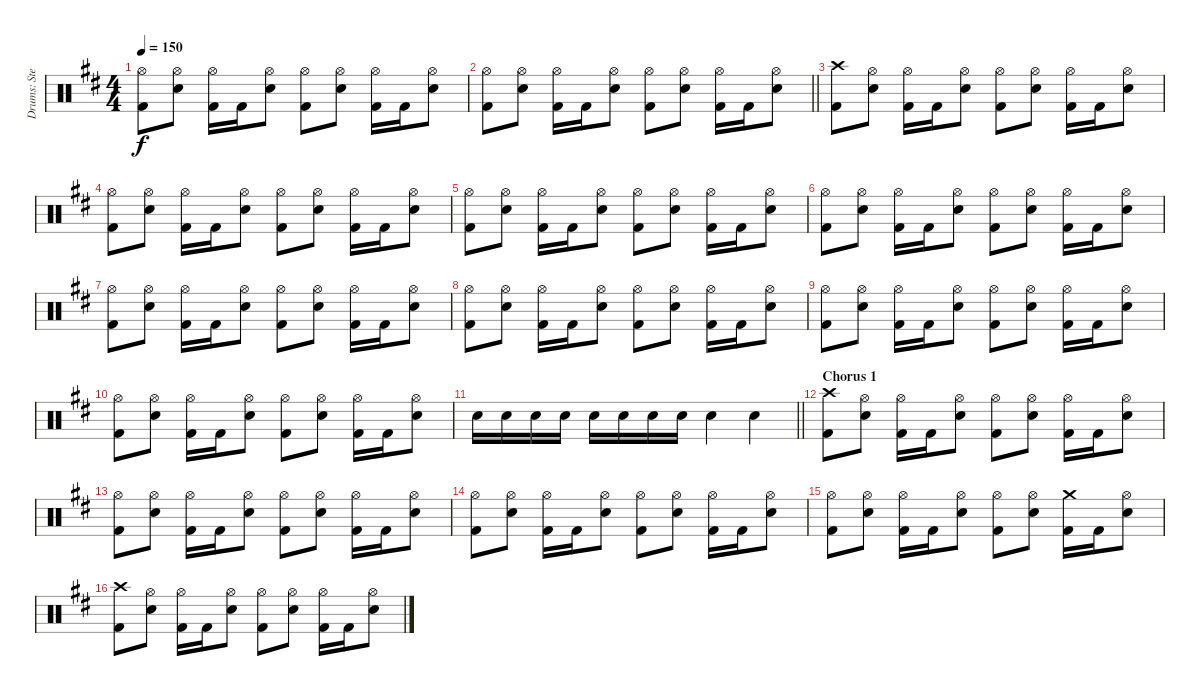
\track ("Drums: Stefan Svantesson" "Drums: Ste") {instrument percussion}
\staff {score}
\articulation defaults
\ts (4 4)
\tempo 150
\clef neutral
\ks d
("Hi-Hat (open)" "Kick (hit) 2").8{dy f} ("Hi-Hat (open)" "Electric Snare (hit)").8 ("Hi-Hat (open)" "Kick (hit) 2").16 "Kick (hit) 2".16 ("Hi-Hat (open)" "Electric Snare (hit)").8 ("Hi-Hat (open)" "Kick (hit) 2").8 ("Hi-Hat (open)" "Electric Snare (hit)").8 ("Hi-Hat (open)" "Kick (hit) 2").16 "Kick (hit) 2".16 ("Hi-Hat (open)" "Electric Snare (hit)").8 |
\barLineRight lightlight
("Hi-Hat (open)" "Kick (hit) 2").8 ("Hi-Hat (open)" "Electric Snare (hit)").8 ("Hi-Hat (open)" "Kick (hit) 2").16 "Kick (hit) 2".16 ("Hi-Hat (open)" "Electric Snare (hit)").8 ("Hi-Hat (open)" "Kick (hit) 2").8 ("Hi-Hat (open)" "Electric Snare (hit)").8 ("Hi-Hat (open)" "Kick (hit) 2").16 "Kick (hit) 2".16 ("Hi-Hat (open)" "Electric Snare (hit)").8 |
("Crash high (hit)" "Kick (hit) 2").8 ("Hi-Hat (open)" "Electric Snare (hit)").8 ("Hi-Hat (open)" "Kick (hit) 2").16 "Kick (hit) 2".16 ("Hi-Hat (open)" "Electric Snare (hit)").8 ("Hi-Hat (open)" "Kick (hit) 2").8 ("Hi-Hat (open)" "Electric Snare (hit)").8 ("Hi-Hat (open)" "Kick (hit) 2").16 "Kick (hit) 2".16 ("Hi-Hat (open)" "Electric Snare (hit)").8 |
("Hi-Hat (open)" "Kick (hit) 2").8 ("Hi-Hat (open)" "Electric Snare (hit)").8 ("Hi-Hat (open)" "Kick (hit) 2").16 "Kick (hit) 2".16 ("Hi-Hat (open)" "Electric Snare (hit)").8 ("Hi-Hat (open)" "Kick (hit) 2").8 ("Hi-Hat (open)" "Electric Snare (hit)").8 ("Hi-Hat (open)" "Kick (hit) 2").16 "Kick (hit) 2".16 ("Hi-Hat (open)" "Electric Snare (hit)").8 |
("Hi-Hat (open)" "Kick (hit) 2").8 ("Hi-Hat (open)" "Electric Snare (hit)").8 ("Hi-Hat (open)" "Kick (hit) 2").16 "Kick (hit) 2".16 ("Hi-Hat (open)" "Electric Snare (hit)").8 ("Hi-Hat (open)" "Kick (hit) 2").8 ("Hi-Hat (open)" "Electric Snare (hit)").8 ("Hi-Hat (open)" "Kick (hit) 2").16 "Kick (hit) 2".16 ("Hi-Hat (open)" "Electric Snare (hit)").8 |
("Hi-Hat (open)" "Kick (hit) 2").8 ("Hi-Hat (open)" "Electric Snare (hit)").8 ("Hi-Hat (open)" "Kick (hit) 2").16 "Kick (hit) 2".16 ("Hi-Hat (open)" "Electric Snare (hit)").8 ("Hi-Hat (open)" "Kick (hit) 2").8 ("Hi-Hat (open)" "Electric Snare (hit)").8 ("Hi-Hat (open)" "Kick (hit) 2").16 "Kick (hit) 2".16 ("Hi-Hat (open)" "Electric Snare (hit)").8 |
("Hi-Hat (open)" "Kick (hit) 2").8 ("Hi-Hat (open)" "Electric Snare (hit)").8 ("Hi-Hat (open)" "Kick (hit) 2").16 "Kick (hit) 2".16 ("Hi-Hat (open)" "Electric Snare (hit)").8 ("Hi-Hat (open)" "Kick (hit) 2").8 ("Hi-Hat (open)" "Electric Snare (hit)").8 ("Hi-Hat (open)" "Kick (hit) 2").16 "Kick (hit) 2".16 ("Hi-Hat (open)" "Electric Snare (hit)").8 |
("Hi-Hat (open)" "Kick (hit) 2").8 ("Hi-Hat (open)" "Electric Snare (hit)").8 ("Hi-Hat (open)" "Kick (hit) 2").16 "Kick (hit) 2".16 ("Hi-Hat (open)" "Electric Snare (hit)").8 ("Hi-Hat (open)" "Kick (hit) 2").8 ("Hi-Hat (open)" "Electric Snare (hit)").8 ("Hi-Hat (open)" "Kick (hit) 2").16 "Kick (hit) 2".16 ("Hi-Hat (open)" "Electric Snare (hit)").8 |
("Hi-Hat (open)" "Kick (hit) 2").8 ("Hi-Hat (open)" "Electric Snare (hit)").8 ("Hi-Hat (open)" "Kick (hit) 2").16 "Kick (hit) 2".16 ("Hi-Hat (open)" "Electric Snare (hit)").8 ("Hi-Hat (open)" "Kick (hit) 2").8 ("Hi-Hat (open)" "Electric Snare (hit)").8 ("Hi-Hat (open)" "Kick (hit) 2").16 "Kick (hit) 2".16 ("Hi-Hat (open)" "Electric Snare (hit)").8 |
("Hi-Hat (open)" "Kick (hit) 2").8 ("Hi-Hat (open)" "Electric Snare (hit)").8 ("Hi-Hat (open)" "Kick (hit) 2").16 "Kick (hit) 2".16 ("Hi-Hat (open)" "Electric Snare (hit)").8 ("Hi-Hat (open)" "Kick (hit) 2").8 ("Hi-Hat (open)" "Electric Snare (hit)").8 ("Hi-Hat (open)" "Kick (hit) 2").16 "Kick (hit) 2".16 ("Hi-Hat (open)" "Electric Snare (hit)").8 |
\barLineRight lightlight "Electric Snare (hit)".16 "Electric Snare (hit)".16 "Electric Snare (hit)".16 "Electric Snare (hit)".16 "Electric Snare (hit)".16 "Electric Snare (hit)".16 "Electric Snare (hit)".16 "Electric Snare (hit)".16 "Electric Snare (hit)".4 "Electric Snare (hit)".4
|
\section ("" "Chorus 1")
("Crash high (hit)" "Kick (hit) 2").8 ("Hi-Hat (open)" "Electric Snare (hit)").8 ("Hi-Hat (open)" "Kick (hit) 2").16 "Kick (hit) 2".16 ("Hi-Hat (open)" "Electric Snare (hit)").8 ("Hi-Hat (open)" "Kick (hit) 2").8 ("Hi-Hat (open)" "Electric Snare (hit)").8 ("Hi-Hat (open)" "Kick (hit) 2").16 "Kick (hit) 2".16 ("Hi-Hat (open)" "Electric Snare (hit)").8 |
("Hi-Hat (open)" "Kick (hit) 2").8 ("Hi-Hat (open)" "Electric Snare (hit)").8 ("Hi-Hat (open)" "Kick (hit) 2").16 "Kick (hit) 2".16 ("Hi-Hat (open)" "Electric Snare (hit)").8 ("Hi-Hat (open)" "Kick (hit) 2").8 ("Hi-Hat (open)" "Electric Snare (hit)").8 ("Hi-Hat (open)" "Kick (hit) 2").16 "Kick (hit) 2".16 ("Hi-Hat (open)" "Electric Snare (hit)").8 |
("Hi-Hat (open)" "Kick (hit) 2").8 ("Hi-Hat (open)" "Electric Snare (hit)").8 ("Hi-Hat (open)" "Kick (hit) 2").16 "Kick (hit) 2".16 ("Hi-Hat (open)" "Electric Snare (hit)").8 ("Hi-Hat (open)" "Kick (hit) 2").8 ("Hi-Hat (open)" "Electric Snare (hit)").8 ("Hi-Hat (open)" "Kick (hit) 2").16 "Kick (hit) 2".16 ("Hi-Hat (open)" "Electric Snare (hit)").8 |
("Hi-Hat (open)" "Kick (hit) 2").8 ("Hi-Hat (open)" "Electric Snare (hit)").8 ("Hi-Hat (open)" "Kick (hit) 2").16 "Kick (hit) 2".16 ("Hi-Hat (open)" "Electric Snare (hit)").8 ("Hi-Hat (open)" "Kick (hit) 2").8 ("Hi-Hat (open)" "Electric Snare (hit)").8 ("Crash medium (hit)" "Kick (hit) 2").16 "Kick (hit) 2".16 ("Hi-Hat (open)" "Electric Snare (hit)").8 |
("Crash high (hit)" "Kick (hit) 2").8 ("Hi-Hat (open)" "Electric Snare (hit)").8 ("Hi-Hat (open)" "Kick (hit) 2").16 "Kick (hit) 2".16 ("Hi-Hat (open)" "Electric Snare (hit)").8 ("Hi-Hat (open)" "Kick (hit) 2").8 ("Hi-Hat (open)" "Electric Snare (hit)").8 ("Hi-Hat (open)" "Kick (hit) 2").16 "Kick (hit) 2".16 ("Hi-Hat (open)" "Electric Snare (hit)").8
